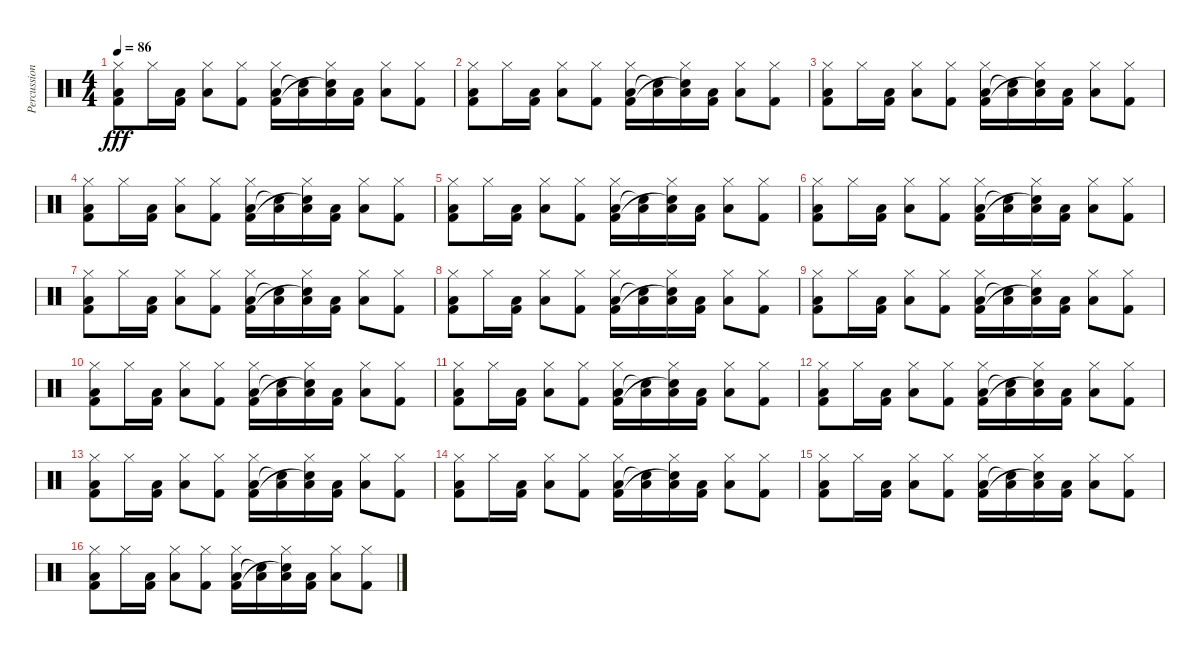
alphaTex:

\track ("Percussion" "Percussion") {instrument percussion}
\staff {score}
\articulation defaults
\ts (4 4)
\tempo 86
\clef neutral
\ks c
("Hi-Hat (closed)" "Low Tom (hit)" "Kick (hit) 2").8{dy fff} "Hi-Hat (closed)".16 ("Low Tom (hit)" "Kick (hit) 2").16 ("Hi-Hat (closed)" "Low Tom (hit)").8 ("Hi-Hat (closed)" "Kick (hit) 2").8 ("Hi-Hat (closed)" "Low Tom (hit)" "Kick (hit) 2").16 ("Low Tom (hit)" "Snare (hit)"{t}).16 ("Hi-Hat (closed)" "Low Tom (hit)" "Snare (hit)"{t}).16 ("Low Tom (hit)" "Kick (hit) 2").16 ("Hi-Hat (closed)" "Low Tom (hit)").8 ("Hi-Hat (closed)" "Kick (hit) 2").8 |
("Hi-Hat (closed)" "Low Tom (hit)" "Kick (hit) 2").8 "Hi-Hat (closed)".16 ("Low Tom (hit)" "Kick (hit) 2").16 ("Hi-Hat (closed)" "Low Tom (hit)").8 ("Hi-Hat (closed)" "Kick (hit) 2").8 ("Hi-Hat (closed)" "Low Tom (hit)" "Kick (hit) 2").16 ("Low Tom (hit)" "Snare (hit)"{t}).16 ("Hi-Hat (closed)" "Low Tom (hit)" "Snare (hit)"{t}).16 ("Low Tom (hit)" "Kick (hit) 2").16 ("Hi-Hat (closed)" "Low Tom (hit)").8 ("Hi-Hat (closed)" "Kick (hit) 2").8 |
("Hi-Hat (closed)" "Low Tom (hit)" "Kick (hit) 2").8 "Hi-Hat (closed)".16 ("Low Tom (hit)" "Kick (hit) 2").16 ("Hi-Hat (closed)" "Low Tom (hit)").8 ("Hi-Hat (closed)" "Kick (hit) 2").8 ("Hi-Hat (closed)" "Low Tom (hit)" "Kick (hit) 2").16 ("Low Tom (hit)" "Snare (hit)"{t}).16 ("Hi-Hat (closed)" "Low Tom (hit)" "Snare (hit)"{t}).16 ("Low Tom (hit)" "Kick (hit) 2").16 ("Hi-Hat (closed)" "Low Tom (hit)").8 ("Hi-Hat (closed)" "Kick (hit) 2").8 |
("Hi-Hat (closed)" "Low Tom (hit)" "Kick (hit) 2").8 "Hi-Hat (closed)".16 ("Low Tom (hit)" "Kick (hit) 2").16 ("Hi-Hat (closed)" "Low Tom (hit)").8 ("Hi-Hat (closed)" "Kick (hit) 2").8 ("Hi-Hat (closed)" "Low Tom (hit)" "Kick (hit) 2").16 ("Low Tom (hit)" "Snare (hit)"{t}).16 ("Hi-Hat (closed)" "Low Tom (hit)" "Snare (hit)"{t}).16 ("Low Tom (hit)" "Kick (hit) 2").16 ("Hi-Hat (closed)" "Low Tom (hit)").8 ("Hi-Hat (closed)" "Kick (hit) 2").8 |
("Hi-Hat (closed)" "Low Tom (hit)" "Kick (hit) 2").8 "Hi-Hat (closed)".16 ("Low Tom (hit)" "Kick (hit) 2").16 ("Hi-Hat (closed)" "Low Tom (hit)").8 ("Hi-Hat (closed)" "Kick (hit) 2").8 ("Hi-Hat (closed)" "Low Tom (hit)" "Kick (hit) 2").16 ("Low Tom (hit)" "Snare (hit)"{t}).16 ("Hi-Hat (closed)" "Low Tom (hit)" "Snare (hit)"{t}).16 ("Low Tom (hit)" "Kick (hit) 2").16 ("Hi-Hat (closed)" "Low Tom (hit)").8 ("Hi-Hat (closed)" "Kick (hit) 2").8 |
("Hi-Hat (closed)" "Low Tom (hit)" "Kick (hit) 2").8 "Hi-Hat (closed)".16 ("Low Tom (hit)" "Kick (hit) 2").16 ("Hi-Hat (closed)" "Low Tom (hit)").8 ("Hi-Hat (closed)" "Kick (hit) 2").8 ("Hi-Hat (closed)" "Low Tom (hit)" "Kick (hit) 2").16 ("Low Tom (hit)" "Snare (hit)"{t}).16 ("Hi-Hat (closed)" "Low Tom (hit)" "Snare (hit)"{t}).16 ("Low Tom (hit)" "Kick (hit) 2").16 ("Hi-Hat (closed)" "Low Tom (hit)").8 ("Hi-Hat (closed)" "Kick (hit) 2").8 |
("Hi-Hat (closed)" "Low Tom (hit)" "Kick (hit) 2").8 "Hi-Hat (closed)".16 ("Low Tom (hit)" "Kick (hit) 2").16 ("Hi-Hat (closed)" "Low Tom (hit)").8 ("Hi-Hat (closed)" "Kick (hit) 2").8 ("Hi-Hat (closed)" "Low Tom (hit)" "Kick (hit) 2").16 ("Low Tom (hit)" "Snare (hit)"{t}).16 ("Hi-Hat (closed)" "Low Tom (hit)" "Snare (hit)"{t}).16 ("Low Tom (hit)" "Kick (hit) 2").16 ("Hi-Hat (closed)" "Low Tom (hit)").8 ("Hi-Hat (closed)" "Kick (hit) 2").8 |
("Hi-Hat (closed)" "Low Tom (hit)" "Kick (hit) 2").8 "Hi-Hat (closed)".16 ("Low Tom (hit)" "Kick (hit) 2").16 ("Hi-Hat (closed)" "Low Tom (hit)").8 ("Hi-Hat (closed)" "Kick (hit) 2").8 ("Hi-Hat (closed)" "Low Tom (hit)" "Kick (hit) 2").16 ("Low Tom (hit)" "Snare (hit)"{t}).16 ("Hi-Hat (closed)" "Low Tom (hit)" "Snare (hit)"{t}).16 ("Low Tom (hit)" "Kick (hit) 2").16 ("Hi-Hat (closed)" "Low Tom (hit)").8 ("Hi-Hat (closed)" "Kick (hit) 2").8 |
("Hi-Hat (closed)" "Low Tom (hit)" "Kick (hit) 2").8 "Hi-Hat (closed)".16 ("Low Tom (hit)" "Kick (hit) 2").16 ("Hi-Hat (closed)" "Low Tom (hit)").8 ("Hi-Hat (closed)" "Kick (hit) 2").8 ("Hi-Hat (closed)" "Low Tom (hit)" "Kick (hit) 2").16 ("Low Tom (hit)" "Snare (hit)"{t}).16 ("Hi-Hat (closed)" "Low Tom (hit)" "Snare (hit)"{t}).16 ("Low Tom (hit)" "Kick (hit) 2").16 ("Hi-Hat (closed)" "Low Tom (hit)").8 ("Hi-Hat (closed)" "Kick (hit) 2").8 |
("Hi-Hat (closed)" "Low Tom (hit)" "Kick (hit) 2").8 "Hi-Hat (closed)".16 ("Low Tom (hit)" "Kick (hit) 2").16 ("Hi-Hat (closed)" "Low Tom (hit)").8 ("Hi-Hat (closed)" "Kick (hit) 2").8 ("Hi-Hat (closed)" "Low Tom (hit)" "Kick (hit) 2").16 ("Low Tom (hit)" "Snare (hit)"{t}).16 ("Hi-Hat (closed)" "Low Tom (hit)" "Snare (hit)"{t}).16 ("Low Tom (hit)" "Kick (hit) 2").16 ("Hi-Hat (closed)" "Low Tom (hit)").8 ("Hi-Hat (closed)" "Kick (hit) 2").8 |
("Hi-Hat (closed)" "Low Tom (hit)" "Kick (hit) 2").8 "Hi-Hat (closed)".16 ("Low Tom (hit)" "Kick (hit) 2").16 ("Hi-Hat (closed)" "Low Tom (hit)").8 ("Hi-Hat (closed)" "Kick (hit) 2").8 ("Hi-Hat (closed)" "Low Tom (hit)" "Kick (hit) 2").16 ("Low Tom (hit)" "Snare (hit)"{t}).16 ("Hi-Hat (closed)" "Low Tom (hit)" "Snare (hit)"{t}).16 ("Low Tom (hit)" "Kick (hit) 2").16 ("Hi-Hat (closed)" "Low Tom (hit)").8 ("Hi-Hat (closed)" "Kick (hit) 2").8 |
("Hi-Hat (closed)" "Low Tom (hit)" "Kick (hit) 2").8 "Hi-Hat (closed)".16 ("Low Tom (hit)" "Kick (hit) 2").16 ("Hi-Hat (closed)" "Low Tom (hit)").8 ("Hi-Hat (closed)" "Kick (hit) 2").8 ("Hi-Hat (closed)" "Low Tom (hit)" "Kick (hit) 2").16 ("Low Tom (hit)" "Snare (hit)"{t}).16 ("Hi-Hat (closed)" "Low Tom (hit)" "Snare (hit)"{t}).16 ("Low Tom (hit)" "Kick (hit) 2").16 ("Hi-Hat (closed)" "Low Tom (hit)").8 ("Hi-Hat (closed)" "Kick (hit) 2").8 |
("Hi-Hat (closed)" "Low Tom (hit)" "Kick (hit) 2").8 "Hi-Hat (closed)".16 ("Low Tom (hit)" "Kick (hit) 2").16 ("Hi-Hat (closed)" "Low Tom (hit)").8 ("Hi-Hat (closed)" "Kick (hit) 2").8 ("Hi-Hat (closed)" "Low Tom (hit)" "Kick (hit) 2").16 ("Low Tom (hit)" "Snare (hit)"{t}).16 ("Hi-Hat (closed)" "Low Tom (hit)" "Snare (hit)"{t}).16 ("Low Tom (hit)" "Kick (hit) 2").16 ("Hi-Hat (closed)" "Low Tom (hit)").8 ("Hi-Hat (closed)" "Kick (hit) 2").8 |
("Hi-Hat (closed)" "Low Tom (hit)" "Kick (hit) 2").8 "Hi-Hat (closed)".16 ("Low Tom (hit)" "Kick (hit) 2").16 ("Hi-Hat (closed)" "Low Tom (hit)").8 ("Hi-Hat (closed)" "Kick (hit) 2").8 ("Hi-Hat (closed)" "Low Tom (hit)" "Kick (hit) 2").16 ("Low Tom (hit)" "Snare (hit)"{t}).16 ("Hi-Hat (closed)" "Low Tom (hit)" "Snare (hit)"{t}).16 ("Low Tom (hit)" "Kick (hit) 2").16 ("Hi-Hat (closed)" "Low Tom (hit)").8 ("Hi-Hat (closed)" "Kick (hit) 2").8 |
("Hi-Hat (closed)" "Low Tom (hit)" "Kick (hit) 2").8 "Hi-Hat (closed)".16 ("Low Tom (hit)" "Kick (hit) 2").16 ("Hi-Hat (closed)" "Low Tom (hit)").8 ("Hi-Hat (closed)" "Kick (hit) 2").8 ("Hi-Hat (closed)" "Low Tom (hit)" "Kick (hit) 2").16 ("Low Tom (hit)" "Snare (hit)"{t}).16 ("Hi-Hat (closed)" "Low Tom (hit)" "Snare (hit)"{t}).16 ("Low Tom (hit)" "Kick (hit) 2").16 ("Hi-Hat (closed)" "Low Tom (hit)").8 ("Hi-Hat (closed)" "Kick (hit) 2").8 |
("Hi-Hat (closed)" "Low Tom (hit)" "Kick (hit) 2").8 "Hi-Hat (closed)".16 ("Low Tom (hit)" "Kick (hit) 2").16 ("Hi-Hat (closed)" "Low Tom (hit)").8 ("Hi-Hat (closed)" "Kick (hit) 2").8 ("Hi-Hat (closed)" "Low Tom (hit)" "Kick (hit) 2").16 ("Low Tom (hit)" "Snare (hit)"{t}).16 ("Hi-Hat (closed)" "Low Tom (hit)" "Snare (hit)"{t}).16 ("Low Tom (hit)" "Kick (hit) 2").16 ("Hi-Hat (closed)" "Low Tom (hit)").8 ("Hi-Hat (closed)" "Kick (hit) 2").8
